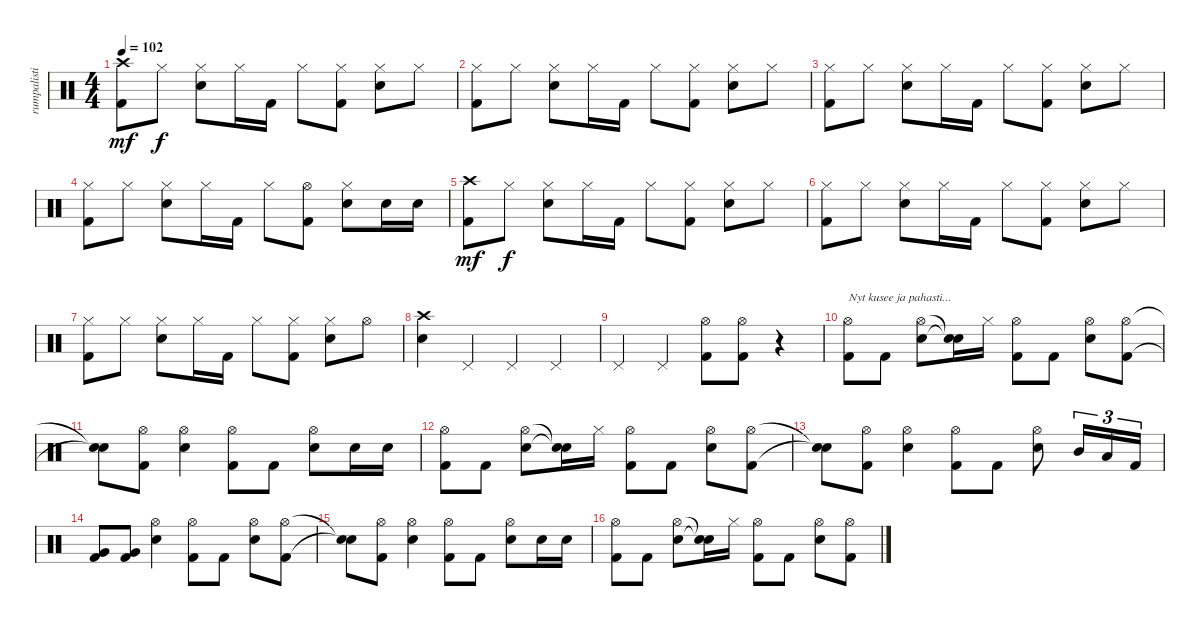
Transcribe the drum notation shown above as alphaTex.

\track ("rumpalisti" "rumpalisti") {instrument percussion}
\staff {score}
\articulation defaults
\ts (4 4)
\tempo 102
\clef neutral
\ks c
("Kick (hit) 2" "Crash high (hit)").8{dy mf} "Hi-Hat (closed)".8{dy f} ("Hi-Hat (closed)" "Snare (hit) 2").8 "Hi-Hat (closed)".16 "Kick (hit) 2".16 "Hi-Hat (closed)".8 ("Kick (hit) 2" "Hi-Hat (closed)").8 ("Hi-Hat (closed)" "Snare (hit) 2").8 "Hi-Hat (closed)".8 |
("Kick (hit) 2" "Hi-Hat (closed)").8 "Hi-Hat (closed)".8 ("Hi-Hat (closed)" "Snare (hit) 2").8 "Hi-Hat (closed)".16 "Kick (hit) 2".16 "Hi-Hat (closed)".8 ("Kick (hit) 2" "Hi-Hat (closed)").8 ("Hi-Hat (closed)" "Snare (hit) 2").8 "Hi-Hat (closed)".8 |
("Kick (hit) 2" "Hi-Hat (closed)").8 "Hi-Hat (closed)".8 ("Hi-Hat (closed)" "Snare (hit) 2").8 "Hi-Hat (closed)".16 "Kick (hit) 2".16 "Hi-Hat (closed)".8 ("Kick (hit) 2" "Hi-Hat (closed)").8 ("Hi-Hat (closed)" "Snare (hit) 2").8 "Hi-Hat (closed)".8 |
("Kick (hit) 2" "Hi-Hat (closed)").8 "Hi-Hat (closed)".8 ("Hi-Hat (closed)" "Snare (hit) 2").8 "Hi-Hat (closed)".16 "Kick (hit) 2".16 "Hi-Hat (closed)".8 ("Kick (hit) 2" "Hi-Hat (open)").8 ("Hi-Hat (closed)" "Snare (hit) 2").8 "Snare (hit) 2".16 "Snare (hit) 2".16 |
("Kick (hit) 2" "Crash high (hit)").8{dy mf} "Hi-Hat (closed)".8{dy f} ("Hi-Hat (closed)" "Snare (hit) 2").8 "Hi-Hat (closed)".16 "Kick (hit) 2".16 "Hi-Hat (closed)".8 ("Kick (hit) 2" "Hi-Hat (closed)").8 ("Hi-Hat (closed)" "Snare (hit) 2").8 "Hi-Hat (closed)".8 |
("Kick (hit) 2" "Hi-Hat (closed)").8 "Hi-Hat (closed)".8 ("Hi-Hat (closed)" "Snare (hit) 2").8 "Hi-Hat (closed)".16 "Kick (hit) 2".16 "Hi-Hat (closed)".8 ("Kick (hit) 2" "Hi-Hat (closed)").8 ("Hi-Hat (closed)" "Snare (hit) 2").8 "Hi-Hat (closed)".8 |
("Kick (hit) 2" "Hi-Hat (closed)").8 "Hi-Hat (closed)".8 ("Hi-Hat (closed)" "Snare (hit) 2").8 "Hi-Hat (closed)".16 "Kick (hit) 2".16 "Hi-Hat (closed)".8 ("Kick (hit) 2" "Hi-Hat (closed)").8 ("Hi-Hat (closed)" "Snare (hit) 2").8 "Hi-Hat (open)".8 |
("Crash high (hit)" "Snare (hit) 2").4 "Pedal Hi-Hat (hit)".4 "Pedal Hi-Hat (hit)".4 "Pedal Hi-Hat (hit)".4 |
"Pedal Hi-Hat (hit)".4 "Pedal Hi-Hat (hit)".4 ("Kick (hit) 2" "Hi-Hat (open)").8 ("Kick (hit) 2" "Hi-Hat (open)").8 r.4 |
("Kick (hit) 2" "Hi-Hat (open)").8{txt "Nyt kusee ja pahasti..."} "Kick (hit) 2".8 ("Hi-Hat (open)" "Snare (hit) 2").8 ("Snare (hit)"{t} "Snare (hit)"{t}).16 "Hi-Hat (closed)".16 ("Kick (hit) 2" "Hi-Hat (open)").8 "Kick (hit) 2".8 ("Hi-Hat (open)" "Snare (hit) 2").8 ("Kick (hit) 2" "Hi-Hat (open)").8 |
("Snare (hit)"{t} "Snare (hit)"{t}).8 ("Kick (hit) 2" "Hi-Hat (open)").8 ("Hi-Hat (open)" "Snare (hit) 2").4 ("Kick (hit) 2" "Hi-Hat (open)").8 "Kick (hit) 2".8 ("Hi-Hat (open)" "Snare (hit) 2").8 "Snare (hit) 2".16 "Snare (hit) 2".16 |
("Kick (hit) 2" "Hi-Hat (open)").8 "Kick (hit) 2".8 ("Hi-Hat (open)" "Snare (hit) 2").8 ("Snare (hit)"{t} "Snare (hit)"{t}).16 "Hi-Hat (closed)".16 ("Kick (hit) 2" "Hi-Hat (open)").8 "Kick (hit) 2".8 ("Hi-Hat (open)" "Snare (hit) 2").8 ("Kick (hit) 2" "Hi-Hat (open)").8 |
("Snare (hit)"{t} "Snare (hit)"{t}).8 ("Kick (hit) 2" "Hi-Hat (open)").8 ("Hi-Hat (open)" "Snare (hit) 2").4 ("Kick (hit) 2" "Hi-Hat (open)").8 "Kick (hit) 2".8 ("Hi-Hat (open)" "Snare (hit) 2").8 "Mid Tom (hit)".16{tu (3 2)} "Low Tom (hit)".16{tu (3 2)} "Kick (hit) 2".16{tu (3 2)} |
("Kick (hit) 2" "Very Low Tom (hit)").8 ("Kick (hit) 2" "Very Low Tom (hit)").8 ("Hi-Hat (open)" "Snare (hit) 2").4 ("Kick (hit) 2" "Hi-Hat (open)").8 "Kick (hit) 2".8 ("Hi-Hat (open)" "Snare (hit) 2").8 ("Kick (hit) 2" "Hi-Hat (open)").8 |
("Snare (hit)"{t} "Snare (hit)"{t}).8 ("Kick (hit) 2" "Hi-Hat (open)").8 ("Hi-Hat (open)" "Snare (hit) 2").4 ("Kick (hit) 2" "Hi-Hat (open)").8 "Kick (hit) 2".8 ("Hi-Hat (open)" "Snare (hit) 2").8 "Snare (hit) 2".16 "Snare (hit) 2".16 |
("Kick (hit) 2" "Hi-Hat (open)").8 "Kick (hit) 2".8 ("Hi-Hat (open)" "Snare (hit) 2").8 ("Snare (hit)"{t} "Snare (hit)"{t}).16 "Hi-Hat (closed)".16 ("Kick (hit) 2" "Hi-Hat (open)").8 "Kick (hit) 2".8 ("Hi-Hat (open)" "Snare (hit) 2").8 ("Kick (hit) 2" "Hi-Hat (open)").8
